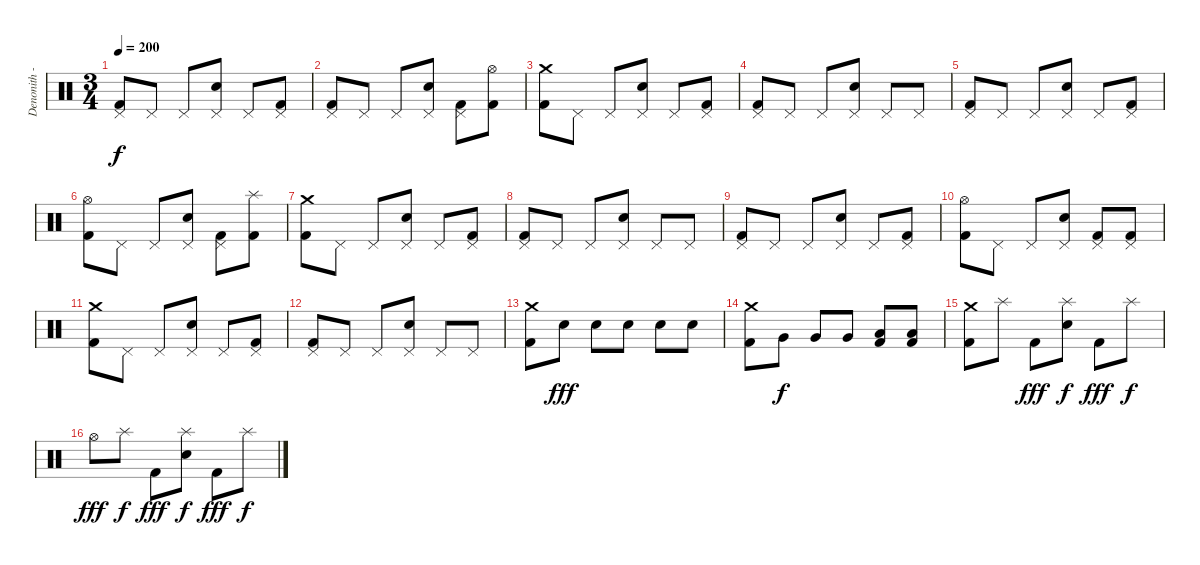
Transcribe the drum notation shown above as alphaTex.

\track ("Denonith - Spyros" "Denonith -") {instrument percussion}
\staff {score}
\articulation defaults
\ts (3 4)
\tempo 200
\clef neutral
\ks c
("Pedal Hi-Hat (hit)" "Kick (hit) 2").8{dy f} "Pedal Hi-Hat (hit)".8 "Pedal Hi-Hat (hit)".8 ("Pedal Hi-Hat (hit)" "Electric Snare (hit)").8 "Pedal Hi-Hat (hit)".8 ("Pedal Hi-Hat (hit)" "Kick (hit) 2").8 |
("Pedal Hi-Hat (hit)" "Kick (hit) 2").8 "Pedal Hi-Hat (hit)".8 "Pedal Hi-Hat (hit)".8 ("Pedal Hi-Hat (hit)" "Electric Snare (hit)").8 ("Pedal Hi-Hat (hit)" "Kick (hit) 2").8 ("Hi-Hat (open)" "Kick (hit) 2").8 |
("Crash medium (hit)" "Kick (hit) 2").8 "Pedal Hi-Hat (hit)".8 "Pedal Hi-Hat (hit)".8 ("Pedal Hi-Hat (hit)" "Electric Snare (hit)").8 "Pedal Hi-Hat (hit)".8 ("Pedal Hi-Hat (hit)" "Kick (hit) 2").8 |
("Pedal Hi-Hat (hit)" "Kick (hit) 2").8 "Pedal Hi-Hat (hit)".8 "Pedal Hi-Hat (hit)".8 ("Pedal Hi-Hat (hit)" "Electric Snare (hit)").8 "Pedal Hi-Hat (hit)".8 "Pedal Hi-Hat (hit)".8 |
("Pedal Hi-Hat (hit)" "Kick (hit) 2").8 "Pedal Hi-Hat (hit)".8 "Pedal Hi-Hat (hit)".8 ("Pedal Hi-Hat (hit)" "Electric Snare (hit)").8 "Pedal Hi-Hat (hit)".8 ("Pedal Hi-Hat (hit)" "Kick (hit) 2").8 |
("Hi-Hat (open)" "Kick (hit) 2").8 "Pedal Hi-Hat (hit)".8 "Pedal Hi-Hat (hit)".8 ("Pedal Hi-Hat (hit)" "Electric Snare (hit)").8 ("Pedal Hi-Hat (hit)" "Kick (hit) 2").8 ("Splash (hit)" "Kick (hit) 2").8 |
("Crash medium (hit)" "Kick (hit) 2").8 "Pedal Hi-Hat (hit)".8 "Pedal Hi-Hat (hit)".8 ("Pedal Hi-Hat (hit)" "Electric Snare (hit)").8 "Pedal Hi-Hat (hit)".8 ("Pedal Hi-Hat (hit)" "Kick (hit) 2").8 |
("Pedal Hi-Hat (hit)" "Kick (hit) 2").8 "Pedal Hi-Hat (hit)".8 "Pedal Hi-Hat (hit)".8 ("Pedal Hi-Hat (hit)" "Electric Snare (hit)").8 "Pedal Hi-Hat (hit)".8 "Pedal Hi-Hat (hit)".8 |
("Pedal Hi-Hat (hit)" "Kick (hit) 2").8 "Pedal Hi-Hat (hit)".8 "Pedal Hi-Hat (hit)".8 ("Pedal Hi-Hat (hit)" "Electric Snare (hit)").8 "Pedal Hi-Hat (hit)".8 ("Pedal Hi-Hat (hit)" "Kick (hit) 2").8 |
("Hi-Hat (open)" "Kick (hit) 2").8 "Pedal Hi-Hat (hit)".8 "Pedal Hi-Hat (hit)".8 ("Pedal Hi-Hat (hit)" "Electric Snare (hit)").8 ("Pedal Hi-Hat (hit)" "Kick (hit) 2").8 ("Pedal Hi-Hat (hit)" "Kick (hit) 2").8 |
("Crash medium (hit)" "Kick (hit) 2").8 "Pedal Hi-Hat (hit)".8 "Pedal Hi-Hat (hit)".8 ("Pedal Hi-Hat (hit)" "Electric Snare (hit)").8 "Pedal Hi-Hat (hit)".8 ("Pedal Hi-Hat (hit)" "Kick (hit) 2").8 |
("Pedal Hi-Hat (hit)" "Kick (hit) 2").8 "Pedal Hi-Hat (hit)".8 "Pedal Hi-Hat (hit)".8 ("Pedal Hi-Hat (hit)" "Electric Snare (hit)").8 "Pedal Hi-Hat (hit)".8 "Pedal Hi-Hat (hit)".8 |
("Crash medium (hit)" "Kick (hit) 2").8 "Electric Snare (hit)".8{dy fff} "Electric Snare (hit)".8 "Electric Snare (hit)".8 "Electric Snare (hit)".8 "Electric Snare (hit)".8 |
("Crash medium (hit)" "Kick (hit) 2").8 "Very Low Tom (hit)".8{dy f} "Very Low Tom (hit)".8 "Very Low Tom (hit)".8 ("Low Floor Tom (hit)" "Kick (hit) 2").8 ("Low Floor Tom (hit)" "Kick (hit) 2").8 |
("Crash medium (hit)" "Kick (hit) 2").8 "Splash (hit)".8 "Kick (hit) 2".8{dy fff} ("Splash (hit)" "Electric Snare (hit)").8{dy f} "Kick (hit) 2".8{dy fff} "Splash (hit)".8{dy f} |
"Hi-Hat (open)".8{dy fff} "Splash (hit)".8{dy f} "Kick (hit) 2".8{dy fff} ("Splash (hit)" "Electric Snare (hit)").8{dy f} "Kick (hit) 2".8{dy fff} "Splash (hit)".8{dy f}
